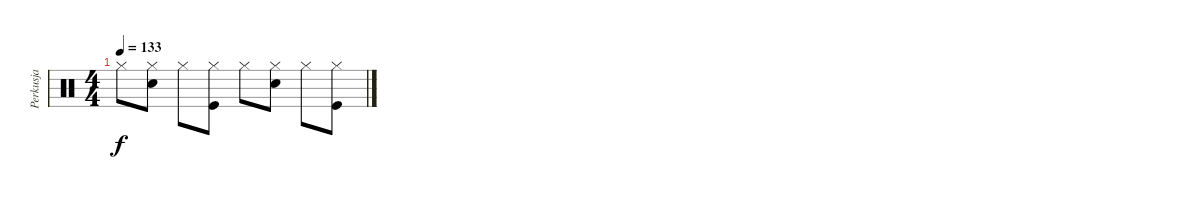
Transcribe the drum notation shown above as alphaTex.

\track ("Perkusja" "Perkusja") {instrument percussion}
\staff {score}
\articulation defaults
\ts (4 4)
\tempo 133
\clef neutral
\ks c "Hi-Hat (closed)".8{dy f}
("Hi-Hat (closed)" "Snare (hit) 2").8 "Hi-Hat (closed)".8 ("Hi-Hat (closed)" "Kick (hit)").8 "Hi-Hat (closed)".8 ("Hi-Hat (closed)" "Snare (hit) 2").8 "Hi-Hat (closed)".8 ("Hi-Hat (closed)" "Kick (hit)").8
